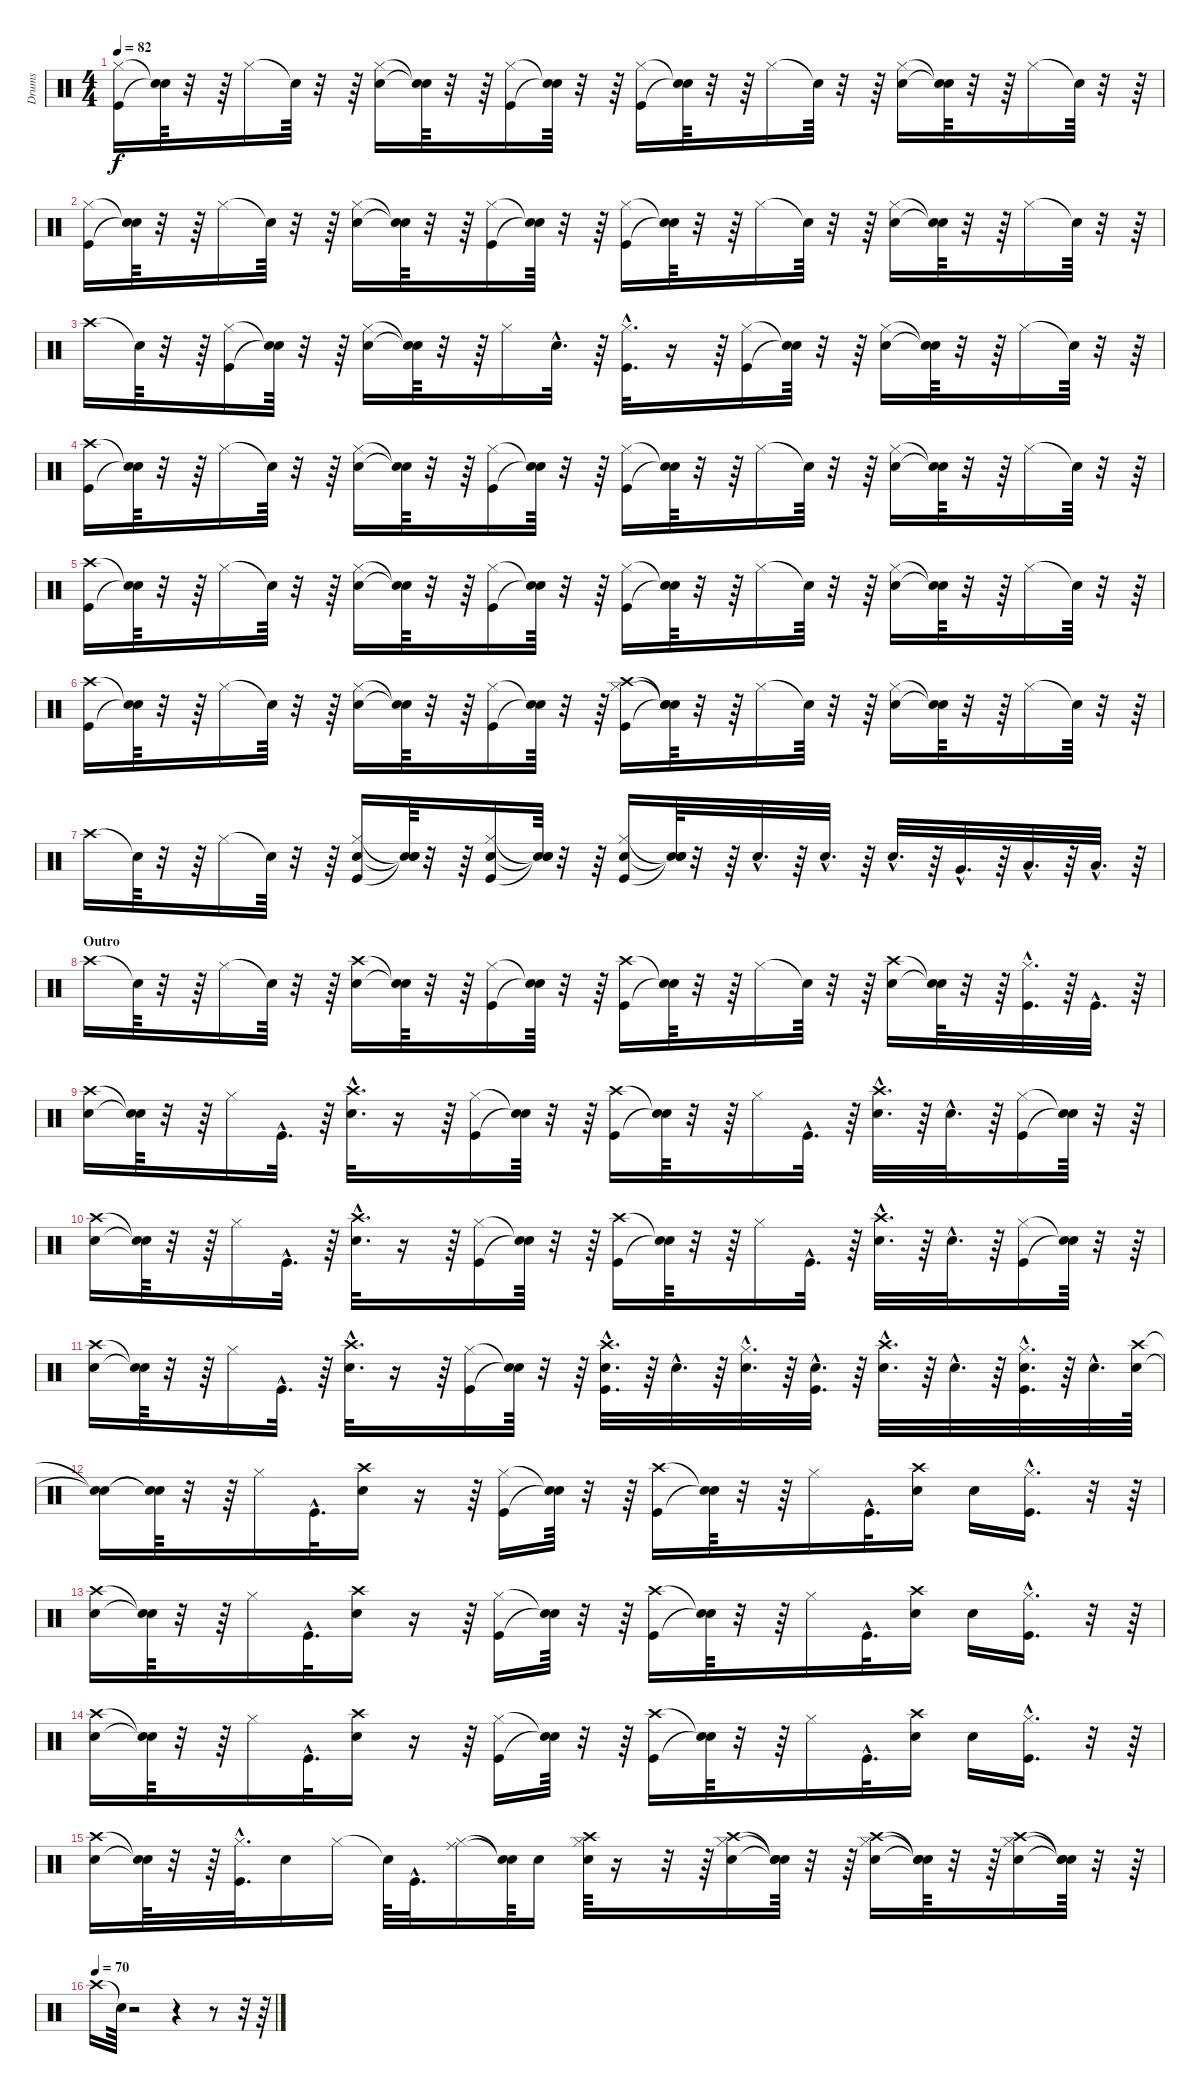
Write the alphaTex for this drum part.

\track ("Drums" "Drums") {instrument percussion}
\staff {score}
\articulation defaults
\ts (4 4)
\tempo 82
\clef neutral
\ks c
("Kick (hit)" "Hi-Hat (closed)").16{dy f} ("Snare (hit)"{t} "Snare (hit)"{t}).64 r.32 r.64 "Hi-Hat (closed)".16 "Snare (hit)"{t}.64 r.32 r.64 ("Snare (hit) 2" "Hi-Hat (closed)").16 ("Snare (hit)"{t} "Snare (hit)"{t}).64 r.32 r.64 ("Kick (hit)" "Hi-Hat (closed)").16 ("Snare (hit)"{t} "Snare (hit)"{t}).64 r.32 r.64 ("Kick (hit)" "Hi-Hat (closed)").16 ("Snare (hit)"{t} "Snare (hit)"{t}).64 r.32 r.64 "Hi-Hat (closed)".16 "Snare (hit)"{t}.64 r.32 r.64 ("Snare (hit) 2" "Hi-Hat (closed)").16 ("Snare (hit)"{t} "Snare (hit)"{t}).64 r.32 r.64 "Hi-Hat (closed)".16 "Snare (hit)"{t}.64 r.32 r.64 |
("Kick (hit)" "Hi-Hat (closed)").16 ("Snare (hit)"{t} "Snare (hit)"{t}).64 r.32 r.64 "Hi-Hat (closed)".16 "Snare (hit)"{t}.64 r.32 r.64 ("Snare (hit) 2" "Hi-Hat (closed)").16 ("Snare (hit)"{t} "Snare (hit)"{t}).64 r.32 r.64 ("Kick (hit)" "Hi-Hat (closed)").16 ("Snare (hit)"{t} "Snare (hit)"{t}).64 r.32 r.64 ("Kick (hit)" "Hi-Hat (closed)").16 ("Snare (hit)"{t} "Snare (hit)"{t}).64 r.32 r.64 "Hi-Hat (closed)".16 "Snare (hit)"{t}.64 r.32 r.64 ("Snare (hit) 2" "Hi-Hat (closed)").16 ("Snare (hit)"{t} "Snare (hit)"{t}).64 r.32 r.64 "Hi-Hat (closed)".16 "Snare (hit)"{t}.64 r.32 r.64 |
"Crash high (hit)".16 "Snare (hit)"{t}.64 r.32 r.64 ("Hi-Hat (closed)" "Kick (hit)").16 ("Snare (hit)"{t} "Snare (hit)"{t}).64 r.32 r.64 ("Hi-Hat (closed)" "Snare (hit) 2").16 ("Snare (hit)"{t} "Snare (hit)"{t}).64 r.32 r.64 "Hi-Hat (closed)".16 "Snare (hit) 2"{hac}.32{d} r.64 ("Hi-Hat (closed)"{hac} "Kick (hit)"{hac}).32{d} r.16 r.64 ("Hi-Hat (closed)" "Kick (hit)").16 ("Snare (hit)"{t} "Snare (hit)"{t}).64 r.32 r.64 ("Hi-Hat (closed)" "Snare (hit) 2").16 ("Snare (hit)"{t} "Snare (hit)"{t}).64 r.32 r.64 "Hi-Hat (closed)".16 "Snare (hit)"{t}.64 r.32 r.64 |
("Crash high (hit)" "Kick (hit)").16 ("Snare (hit)"{t} "Snare (hit)"{t}).64 r.32 r.64 "Hi-Hat (closed)".16 "Snare (hit)"{t}.64 r.32 r.64 ("Snare (hit) 2" "Hi-Hat (closed)").16 ("Snare (hit)"{t} "Snare (hit)"{t}).64 r.32 r.64 ("Kick (hit)" "Hi-Hat (closed)").16 ("Snare (hit)"{t} "Snare (hit)"{t}).64 r.32 r.64 ("Kick (hit)" "Hi-Hat (closed)").16 ("Snare (hit)"{t} "Snare (hit)"{t}).64 r.32 r.64 "Hi-Hat (closed)".16 "Snare (hit)"{t}.64 r.32 r.64 ("Hi-Hat (closed)" "Snare (hit) 2").16 ("Snare (hit)"{t} "Snare (hit)"{t}).64 r.32 r.64 "Hi-Hat (closed)".16 "Snare (hit)"{t}.64 r.32 r.64 |
("Kick (hit)" "Crash high (hit)").16 ("Snare (hit)"{t} "Snare (hit)"{t}).64 r.32 r.64 "Hi-Hat (closed)".16 "Snare (hit)"{t}.64 r.32 r.64 ("Snare (hit) 2" "Hi-Hat (closed)").16 ("Snare (hit)"{t} "Snare (hit)"{t}).64 r.32 r.64 ("Kick (hit)" "Hi-Hat (closed)").16 ("Snare (hit)"{t} "Snare (hit)"{t}).64 r.32 r.64 ("Kick (hit)" "Hi-Hat (closed)").16 ("Snare (hit)"{t} "Snare (hit)"{t}).64 r.32 r.64 "Hi-Hat (closed)".16 "Snare (hit)"{t}.64 r.32 r.64 ("Snare (hit) 2" "Hi-Hat (closed)").16 ("Snare (hit)"{t} "Snare (hit)"{t}).64 r.32 r.64 "Hi-Hat (closed)".16 "Snare (hit)"{t}.64 r.32 r.64 |
("Kick (hit)" "Crash high (hit)").16 ("Snare (hit)"{t} "Snare (hit)"{t}).64 r.32 r.64 "Hi-Hat (closed)".16 "Snare (hit)"{t}.64 r.32 r.64 ("Snare (hit) 2" "Hi-Hat (closed)").16 ("Snare (hit)"{t} "Snare (hit)"{t}).64 r.32 r.64 ("Kick (hit)" "Hi-Hat (closed)").16 ("Snare (hit)"{t} "Snare (hit)"{t}).64 r.32 r.64 ("Kick (hit)" "Hi-Hat (closed)" "Crash high (hit)").16 ("Snare (hit)"{t} "Snare (hit)"{t} "Snare (hit)"{t}).64 r.32 r.64 "Hi-Hat (closed)".16 "Snare (hit)"{t}.64 r.32 r.64 ("Snare (hit) 2" "Hi-Hat (closed)").16 ("Snare (hit)"{t} "Snare (hit)"{t}).64 r.32 r.64 "Hi-Hat (closed)".16 "Snare (hit)"{t}.64 r.32 r.64 |
"Crash high (hit)".16 "Snare (hit)"{t}.64 r.32 r.64 "Hi-Hat (closed)".16 "Snare (hit)"{t}.64 r.32 r.64 ("Kick (hit)" "Hi-Hat (closed)" "Snare (hit) 2").16 ("Snare (hit)"{t} "Snare (hit)"{t} "Snare (hit)"{t}).64 r.32 r.64 ("Kick (hit)" "Hi-Hat (closed)" "Snare (hit) 2").16 ("Snare (hit)"{t} "Snare (hit)"{t} "Snare (hit)"{t}).64 r.32 r.64 ("Kick (hit)" "Hi-Hat (closed)" "Snare (hit) 2").16 ("Snare (hit)"{t} "Snare (hit)"{t} "Snare (hit)"{t}).64 r.32 r.64 "Snare (hit) 2"{hac}.32{d} r.64 "Snare (hit) 2"{hac}.32{d} r.64 "Snare (hit) 2"{hac}.32{d} r.64 "Very Low Tom (hit)"{hac}.32{d} r.64 "Low Floor Tom (hit)"{hac}.32{d} r.64 "Low Floor Tom (hit)"{hac}.32{d} r.64 |
\section ("" "Outro")
"Crash high (hit)".16 "Snare (hit)"{t}.64 r.32 r.64 "Hi-Hat (closed)".16 "Snare (hit)"{t}.64 r.32 r.64 ("Crash high (hit)" "Snare (hit) 2").16 ("Snare (hit)"{t} "Snare (hit)"{t}).64 r.32 r.64 ("Kick (hit)" "Hi-Hat (closed)").16 ("Snare (hit)"{t} "Snare (hit)"{t}).64 r.32 r.64 ("Crash high (hit)" "Kick (hit)").16 ("Snare (hit)"{t} "Snare (hit)"{t}).64 r.32 r.64 "Hi-Hat (closed)".16 "Snare (hit)"{t}.64 r.32 r.64 ("Crash high (hit)" "Snare (hit) 2").16 ("Snare (hit)"{t} "Snare (hit)"{t}).64 r.32 r.64 ("Hi-Hat (closed)"{hac} "Kick (hit)"{hac}).32{d} r.64 "Kick (hit)"{hac}.32{d} r.64 |
("Snare (hit) 2" "Crash high (hit)").16 ("Snare (hit)"{t} "Snare (hit)"{t}).64 r.32 r.64 "Hi-Hat (closed)".16 "Kick (hit)"{hac}.32{d} r.64 ("Crash high (hit)"{hac} "Snare (hit) 2"{hac}).32{d} r.16 r.64 ("Hi-Hat (closed)" "Kick (hit)").16 ("Snare (hit)"{t} "Snare (hit)"{t}).64 r.32 r.64 ("Crash high (hit)" "Kick (hit)").16 ("Snare (hit)"{t} "Snare (hit)"{t}).64 r.32 r.64 "Hi-Hat (closed)".16 "Kick (hit)"{hac}.32{d} r.64 ("Crash high (hit)"{hac} "Snare (hit) 2"{hac}).32{d} r.64 "Snare (hit) 2"{hac}.32{d} r.64 ("Hi-Hat (closed)" "Kick (hit)").16 ("Snare (hit)"{t} "Snare (hit)"{t}).64 r.32 r.64 |
("Snare (hit) 2" "Crash high (hit)").16 ("Snare (hit)"{t} "Snare (hit)"{t}).64 r.32 r.64 "Hi-Hat (closed)".16 "Kick (hit)"{hac}.32{d} r.64 ("Crash high (hit)"{hac} "Snare (hit) 2"{hac}).32{d} r.16 r.64 ("Hi-Hat (closed)" "Kick (hit)").16 ("Snare (hit)"{t} "Snare (hit)"{t}).64 r.32 r.64 ("Crash high (hit)" "Kick (hit)").16 ("Snare (hit)"{t} "Snare (hit)"{t}).64 r.32 r.64 "Hi-Hat (closed)".16 "Kick (hit)"{hac}.32{d} r.64 ("Crash high (hit)"{hac} "Snare (hit) 2"{hac}).32{d} r.64 "Snare (hit) 2"{hac}.32{d} r.64 ("Hi-Hat (closed)" "Kick (hit)").16 ("Snare (hit)"{t} "Snare (hit)"{t}).64 r.32 r.64 |
("Snare (hit) 2" "Crash high (hit)").16 ("Snare (hit)"{t} "Snare (hit)"{t}).64 r.32 r.64 "Hi-Hat (closed)".16 "Kick (hit)"{hac}.32{d} r.64 ("Crash high (hit)"{hac} "Snare (hit) 2"{hac}).32{d} r.16 r.64 ("Hi-Hat (closed)" "Kick (hit)").16 ("Snare (hit)"{t} "Snare (hit)"{t}).64 r.32 r.64 ("Snare (hit) 2"{hac} "Crash high (hit)"{hac} "Kick (hit)"{hac}).32{d} r.64 "Snare (hit) 2"{hac}.32{d} r.64 ("Snare (hit) 2"{hac} "Hi-Hat (closed)"{hac}).32{d} r.64 ("Snare (hit) 2"{hac} "Kick (hit)"{hac}).32{d} r.64 ("Snare (hit) 2"{hac} "Crash high (hit)"{hac}).32{d} r.64 "Snare (hit) 2"{hac}.32{d} r.64 ("Snare (hit) 2"{hac} "Hi-Hat (closed)"{hac} "Kick (hit)"{hac}).32{d} r.64 "Snare (hit) 2"{hac}.32{d} ("Snare (hit) 2" "Crash high (hit)").64 |
("Snare (hit)"{t} "Snare (hit)"{t}).16 ("Snare (hit)"{t} "Snare (hit)"{t}).64 r.32 r.64 "Hi-Hat (closed)".16 "Kick (hit)"{hac}.32{d} ("Crash high (hit)" "Snare (hit) 2").16 r.16 r.64 ("Hi-Hat (closed)" "Kick (hit)").16 ("Snare (hit)"{t} "Snare (hit)"{t}).64 r.32 r.64 ("Crash high (hit)" "Kick (hit)").16 ("Snare (hit)"{t} "Snare (hit)"{t}).64 r.32 r.64 "Hi-Hat (closed)".16 "Kick (hit)"{hac}.32{d} ("Crash high (hit)" "Snare (hit) 2").16 "Snare (hit) 2".16 ("Hi-Hat (closed)"{hac} "Kick (hit)"{hac}).16{d} r.32 r.64 |
("Snare (hit) 2" "Crash high (hit)").16 ("Snare (hit)"{t} "Snare (hit)"{t}).64 r.32 r.64 "Hi-Hat (closed)".16 "Kick (hit)"{hac}.32{d} ("Crash high (hit)" "Snare (hit) 2").16 r.16 r.64 ("Hi-Hat (closed)" "Kick (hit)").16 ("Snare (hit)"{t} "Snare (hit)"{t}).64 r.32 r.64 ("Crash high (hit)" "Kick (hit)").16 ("Snare (hit)"{t} "Snare (hit)"{t}).64 r.32 r.64 "Hi-Hat (closed)".16 "Kick (hit)"{hac}.32{d} ("Crash high (hit)" "Snare (hit) 2").16 "Snare (hit) 2".16 ("Hi-Hat (closed)"{hac} "Kick (hit)"{hac}).16{d} r.32 r.64 |
("Snare (hit) 2" "Crash high (hit)").16 ("Snare (hit)"{t} "Snare (hit)"{t}).64 r.32 r.64 "Hi-Hat (closed)".16 "Kick (hit)"{hac}.32{d} ("Crash high (hit)" "Snare (hit) 2").16 r.16 r.64 ("Hi-Hat (closed)" "Kick (hit)").16 ("Snare (hit)"{t} "Snare (hit)"{t}).64 r.32 r.64 ("Crash high (hit)" "Kick (hit)").16 ("Snare (hit)"{t} "Snare (hit)"{t}).64 r.32 r.64 "Hi-Hat (closed)".16 "Kick (hit)"{hac}.32{d} ("Crash high (hit)" "Snare (hit) 2").16 "Snare (hit) 2".16 ("Hi-Hat (closed)"{hac} "Kick (hit)"{hac}).16{d} r.32 r.64 |
("Crash high (hit)" "Snare (hit) 2").16 ("Snare (hit)"{t} "Snare (hit)"{t}).64 r.32 r.64 ("Kick (hit)"{hac} "Hi-Hat (closed)"{hac}).32{d} "Snare (hit) 2".16 "Hi-Hat (closed)".16 "Snare (hit)"{t}.64 "Kick (hit)"{hac}.32{d} ("Hi-Hat (closed)" "Ride (middle)").16 ("Snare (hit)"{t} "Snare (hit)"{t}).64 "Snare (hit) 2".16 ("Crash high (hit)" "Snare (hit) 2" "Hi-Hat (closed)").64 r.16 r.32 r.64 ("Crash high (hit)" "Snare (hit) 2" "Hi-Hat (closed)").16 ("Snare (hit)"{t} "Snare (hit)"{t} "Snare (hit)"{t}).64 r.32 r.64 ("Crash high (hit)" "Snare (hit) 2" "Hi-Hat (closed)").16 ("Snare (hit)"{t} "Snare (hit)"{t} "Snare (hit)"{t}).64 r.32 r.64 ("Crash high (hit)" "Snare (hit) 2" "Hi-Hat (closed)").16 ("Snare (hit)"{t} "Snare (hit)"{t} "Snare (hit)"{t}).64 r.32 r.64 |
\tempo (70)
"Crash high (hit)".16 "Snare (hit)"{t}.64 r.2 r.4 r.8 r.32 r.64
